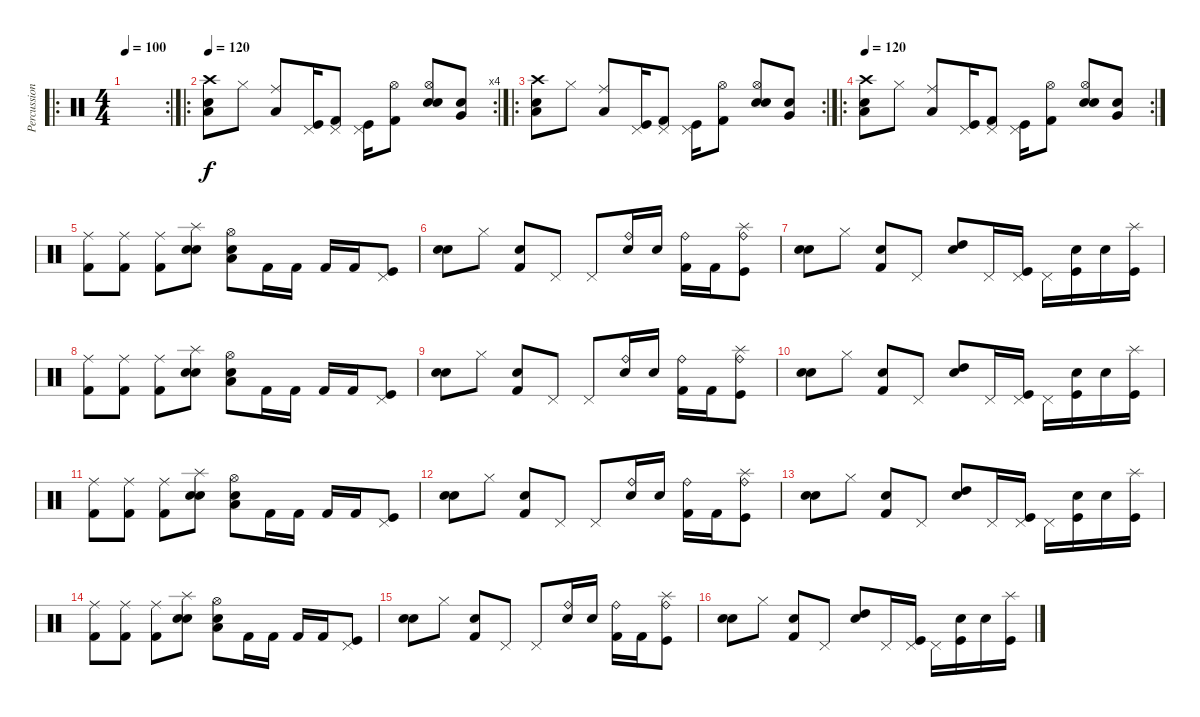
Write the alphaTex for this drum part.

\track ("Percussion" "Percussion") {instrument percussion}
\staff {score}
\articulation defaults
\ro
\rc 2
\ts (4 4)
\tempo 100
\clef neutral
\ks c
|
\ro
\rc 4
\tempo 120
("Crash high (hit)" "Electric Snare (hit)" "Low Tom (hit)").8 "Hi-Hat (closed)".8 ("Low Floor Tom (hit)" "Ride (middle)").8 ("Kick (hit)" "Pedal Hi-Hat (hit)").16 ("Kick (hit) 2" "Pedal Hi-Hat (hit)").8 ("Kick (hit)" "Pedal Hi-Hat (hit)").16 ("Kick (hit) 2" "Hi-Hat (open)").8 ("Hi-Hat (open)" "Snare (hit) 2" "Electric Snare (hit)").8 ("Very Low Tom (hit)" "Electric Snare (hit)").8 |
\ro
\rc 2
("Crash high (hit)" "Electric Snare (hit)" "Low Tom (hit)").8 "Hi-Hat (closed)".8 ("Low Floor Tom (hit)" "Ride (middle)").8 ("Kick (hit)" "Pedal Hi-Hat (hit)").16 ("Kick (hit) 2" "Pedal Hi-Hat (hit)").8 ("Kick (hit)" "Pedal Hi-Hat (hit)").16 ("Kick (hit) 2" "Hi-Hat (open)").8 ("Hi-Hat (open)" "Snare (hit) 2" "Electric Snare (hit)").8 ("Very Low Tom (hit)" "Electric Snare (hit)").8 |
\ro
\rc 2
\tempo 120
("Crash high (hit)" "Electric Snare (hit)" "Low Tom (hit)").8 "Hi-Hat (closed)".8 ("Low Floor Tom (hit)" "Ride (middle)").8 ("Kick (hit)" "Pedal Hi-Hat (hit)").16 ("Kick (hit) 2" "Pedal Hi-Hat (hit)").8 ("Kick (hit)" "Pedal Hi-Hat (hit)").16 ("Kick (hit) 2" "Hi-Hat (open)").8 ("Hi-Hat (open)" "Snare (hit) 2" "Electric Snare (hit)").8 ("Very Low Tom (hit)" "Electric Snare (hit)").8 |
("Ride (middle)" "Kick (hit) 2").8 ("Ride (middle)" "Kick (hit) 2").8 ("Ride (middle)" "Kick (hit) 2").8 ("Splash (hit)" "Snare (hit) 2" "Electric Snare (hit)").8 ("Hi-Hat (open)" "Low Tom (hit)" "Electric Snare (hit)").8 "Kick (hit) 2".16 "Kick (hit) 2".16 "Kick (hit) 2".16 "Kick (hit) 2".16 ("Pedal Hi-Hat (hit)" "Kick (hit)").8 |
("Electric Snare (hit)" "Snare (hit) 2").8 "Hi-Hat (closed)".8 ("Snare (hit) 2" "Kick (hit) 2").8 "Pedal Hi-Hat (hit)".8 "Pedal Hi-Hat (hit)".8 ("Electric Snare (hit)" "Ride (bell)").16 "Electric Snare (hit)".16 ("Kick (hit) 2" "Ride (bell)").16 "Kick (hit) 2".16 ("Splash (hit)" "Kick (hit)" "Ride (bell)").8 |
("Electric Snare (hit)" "Snare (hit) 2").8 "Hi-Hat (closed)".8 ("Snare (hit) 2" "Kick (hit) 2").8 "Pedal Hi-Hat (hit)".8 ("Electric Snare (hit)" "High Tom (hit)").8 "Pedal Hi-Hat (hit)".16 ("Pedal Hi-Hat (hit)" "Kick (hit)").16 "Pedal Hi-Hat (hit)".16 ("Snare (hit) 2" "Kick (hit)").16 "Snare (hit) 2".16 ("Splash (hit)" "Kick (hit)").16 |
("Ride (middle)" "Kick (hit) 2").8 ("Ride (middle)" "Kick (hit) 2").8 ("Ride (middle)" "Kick (hit) 2").8 ("Splash (hit)" "Snare (hit) 2" "Electric Snare (hit)").8 ("Hi-Hat (open)" "Low Tom (hit)" "Electric Snare (hit)").8 "Kick (hit) 2".16 "Kick (hit) 2".16 "Kick (hit) 2".16 "Kick (hit) 2".16 ("Pedal Hi-Hat (hit)" "Kick (hit)").8 |
("Electric Snare (hit)" "Snare (hit) 2").8 "Hi-Hat (closed)".8 ("Snare (hit) 2" "Kick (hit) 2").8 "Pedal Hi-Hat (hit)".8 "Pedal Hi-Hat (hit)".8 ("Electric Snare (hit)" "Ride (bell)").16 "Electric Snare (hit)".16 ("Kick (hit) 2" "Ride (bell)").16 "Kick (hit) 2".16 ("Splash (hit)" "Kick (hit)" "Ride (bell)").8 |
("Electric Snare (hit)" "Snare (hit) 2").8 "Hi-Hat (closed)".8 ("Snare (hit) 2" "Kick (hit) 2").8 "Pedal Hi-Hat (hit)".8 ("Electric Snare (hit)" "High Tom (hit)").8 "Pedal Hi-Hat (hit)".16 ("Pedal Hi-Hat (hit)" "Kick (hit)").16 "Pedal Hi-Hat (hit)".16 ("Snare (hit) 2" "Kick (hit)").16 "Snare (hit) 2".16 ("Splash (hit)" "Kick (hit)").16 |
("Ride (middle)" "Kick (hit) 2").8 ("Ride (middle)" "Kick (hit) 2").8 ("Ride (middle)" "Kick (hit) 2").8 ("Splash (hit)" "Snare (hit) 2" "Electric Snare (hit)").8 ("Hi-Hat (open)" "Low Tom (hit)" "Electric Snare (hit)").8 "Kick (hit) 2".16 "Kick (hit) 2".16 "Kick (hit) 2".16 "Kick (hit) 2".16 ("Pedal Hi-Hat (hit)" "Kick (hit)").8 |
("Electric Snare (hit)" "Snare (hit) 2").8 "Hi-Hat (closed)".8 ("Snare (hit) 2" "Kick (hit) 2").8 "Pedal Hi-Hat (hit)".8 "Pedal Hi-Hat (hit)".8 ("Electric Snare (hit)" "Ride (bell)").16 "Electric Snare (hit)".16 ("Kick (hit) 2" "Ride (bell)").16 "Kick (hit) 2".16 ("Splash (hit)" "Kick (hit)" "Ride (bell)").8 |
("Electric Snare (hit)" "Snare (hit) 2").8 "Hi-Hat (closed)".8 ("Snare (hit) 2" "Kick (hit) 2").8 "Pedal Hi-Hat (hit)".8 ("Electric Snare (hit)" "High Tom (hit)").8 "Pedal Hi-Hat (hit)".16 ("Pedal Hi-Hat (hit)" "Kick (hit)").16 "Pedal Hi-Hat (hit)".16 ("Snare (hit) 2" "Kick (hit)").16 "Snare (hit) 2".16 ("Splash (hit)" "Kick (hit)").16 |
("Ride (middle)" "Kick (hit) 2").8 ("Ride (middle)" "Kick (hit) 2").8 ("Ride (middle)" "Kick (hit) 2").8 ("Splash (hit)" "Snare (hit) 2" "Electric Snare (hit)").8 ("Hi-Hat (open)" "Low Tom (hit)" "Electric Snare (hit)").8 "Kick (hit) 2".16 "Kick (hit) 2".16 "Kick (hit) 2".16 "Kick (hit) 2".16 ("Pedal Hi-Hat (hit)" "Kick (hit)").8 |
("Electric Snare (hit)" "Snare (hit) 2").8 "Hi-Hat (closed)".8 ("Snare (hit) 2" "Kick (hit) 2").8 "Pedal Hi-Hat (hit)".8 "Pedal Hi-Hat (hit)".8 ("Electric Snare (hit)" "Ride (bell)").16 "Electric Snare (hit)".16 ("Kick (hit) 2" "Ride (bell)").16 "Kick (hit) 2".16 ("Splash (hit)" "Kick (hit)" "Ride (bell)").8 |
("Electric Snare (hit)" "Snare (hit) 2").8 "Hi-Hat (closed)".8 ("Snare (hit) 2" "Kick (hit) 2").8 "Pedal Hi-Hat (hit)".8 ("Electric Snare (hit)" "High Tom (hit)").8 "Pedal Hi-Hat (hit)".16 ("Pedal Hi-Hat (hit)" "Kick (hit)").16 "Pedal Hi-Hat (hit)".16 ("Snare (hit) 2" "Kick (hit)").16 "Snare (hit) 2".16 ("Splash (hit)" "Kick (hit)").16
